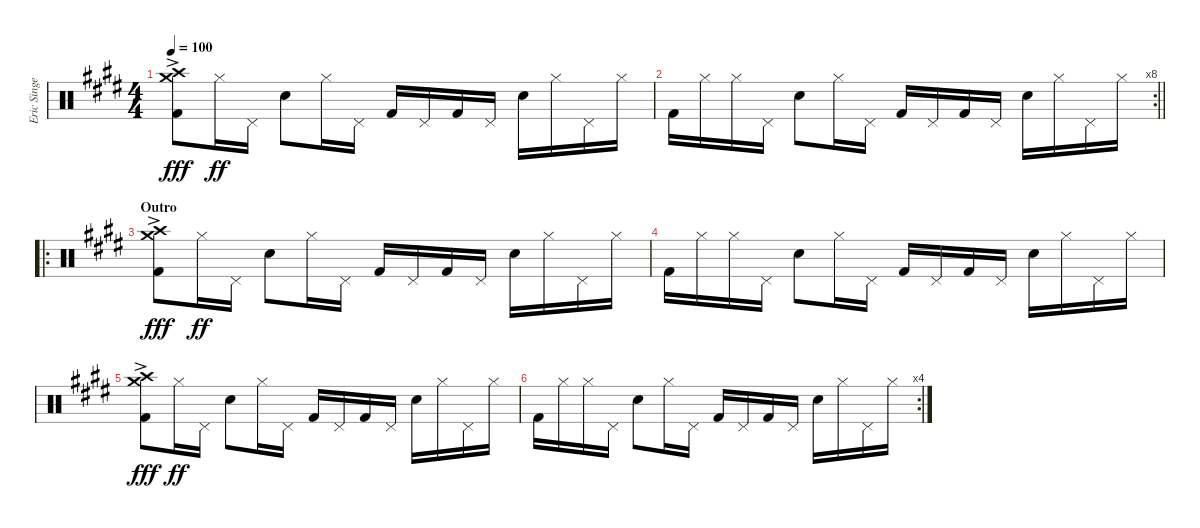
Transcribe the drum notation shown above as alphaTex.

\track ("Eric Singer" "Eric Singe") {instrument percussion}
\staff {score}
\articulation defaults
\ts (4 4)
\tempo 100
\clef neutral
\ks e
("Crash medium (hit)"{ac} "Crash high (hit)"{ac} "Kick (hit) 2"{ac}).8{dy fff} "Hi-Hat (closed)".16{dy ff} "Pedal Hi-Hat (hit)".16 "Snare (hit) 2".8 "Hi-Hat (closed)".16 "Pedal Hi-Hat (hit)".16 "Kick (hit) 2".16 "Pedal Hi-Hat (hit)".16 "Kick (hit) 2".16 "Pedal Hi-Hat (hit)".16 "Snare (hit) 2".16 "Hi-Hat (closed)".16 "Pedal Hi-Hat (hit)".16 "Hi-Hat (closed)".16 |
\rc 8
\barLineRight lightlight "Kick (hit) 2".16 "Hi-Hat (closed)".16 "Hi-Hat (closed)".16 "Pedal Hi-Hat (hit)".16 "Snare (hit) 2".8 "Hi-Hat (closed)".16 "Pedal Hi-Hat (hit)".16 "Kick (hit) 2".16 "Pedal Hi-Hat (hit)".16 "Kick (hit) 2".16 "Pedal Hi-Hat (hit)".16 "Snare (hit) 2".16 "Hi-Hat (closed)".16 "Pedal Hi-Hat (hit)".16 "Hi-Hat (closed)".16
|
\ro
\section ("" "Outro")
("Crash medium (hit)"{ac} "Crash high (hit)"{ac} "Kick (hit) 2"{ac}).8{dy fff} "Hi-Hat (closed)".16{dy ff} "Pedal Hi-Hat (hit)".16 "Snare (hit) 2".8 "Hi-Hat (closed)".16 "Pedal Hi-Hat (hit)".16 "Kick (hit) 2".16 "Pedal Hi-Hat (hit)".16 "Kick (hit) 2".16 "Pedal Hi-Hat (hit)".16 "Snare (hit) 2".16 "Hi-Hat (closed)".16 "Pedal Hi-Hat (hit)".16 "Hi-Hat (closed)".16 |
"Kick (hit) 2".16 "Hi-Hat (closed)".16 "Hi-Hat (closed)".16 "Pedal Hi-Hat (hit)".16 "Snare (hit) 2".8 "Hi-Hat (closed)".16 "Pedal Hi-Hat (hit)".16 "Kick (hit) 2".16 "Pedal Hi-Hat (hit)".16 "Kick (hit) 2".16 "Pedal Hi-Hat (hit)".16 "Snare (hit) 2".16 "Hi-Hat (closed)".16 "Pedal Hi-Hat (hit)".16 "Hi-Hat (closed)".16 |
("Crash medium (hit)"{ac} "Crash high (hit)"{ac} "Kick (hit) 2"{ac}).8{dy fff} "Hi-Hat (closed)".16{dy ff} "Pedal Hi-Hat (hit)".16 "Snare (hit) 2".8 "Hi-Hat (closed)".16 "Pedal Hi-Hat (hit)".16 "Kick (hit) 2".16 "Pedal Hi-Hat (hit)".16 "Kick (hit) 2".16 "Pedal Hi-Hat (hit)".16 "Snare (hit) 2".16 "Hi-Hat (closed)".16 "Pedal Hi-Hat (hit)".16 "Hi-Hat (closed)".16 |
\rc 4 "Kick (hit) 2".16 "Hi-Hat (closed)".16 "Hi-Hat (closed)".16 "Pedal Hi-Hat (hit)".16 "Snare (hit) 2".8 "Hi-Hat (closed)".16 "Pedal Hi-Hat (hit)".16 "Kick (hit) 2".16 "Pedal Hi-Hat (hit)".16 "Kick (hit) 2".16 "Pedal Hi-Hat (hit)".16 "Snare (hit) 2".16 "Hi-Hat (closed)".16 "Pedal Hi-Hat (hit)".16 "Hi-Hat (closed)".16
